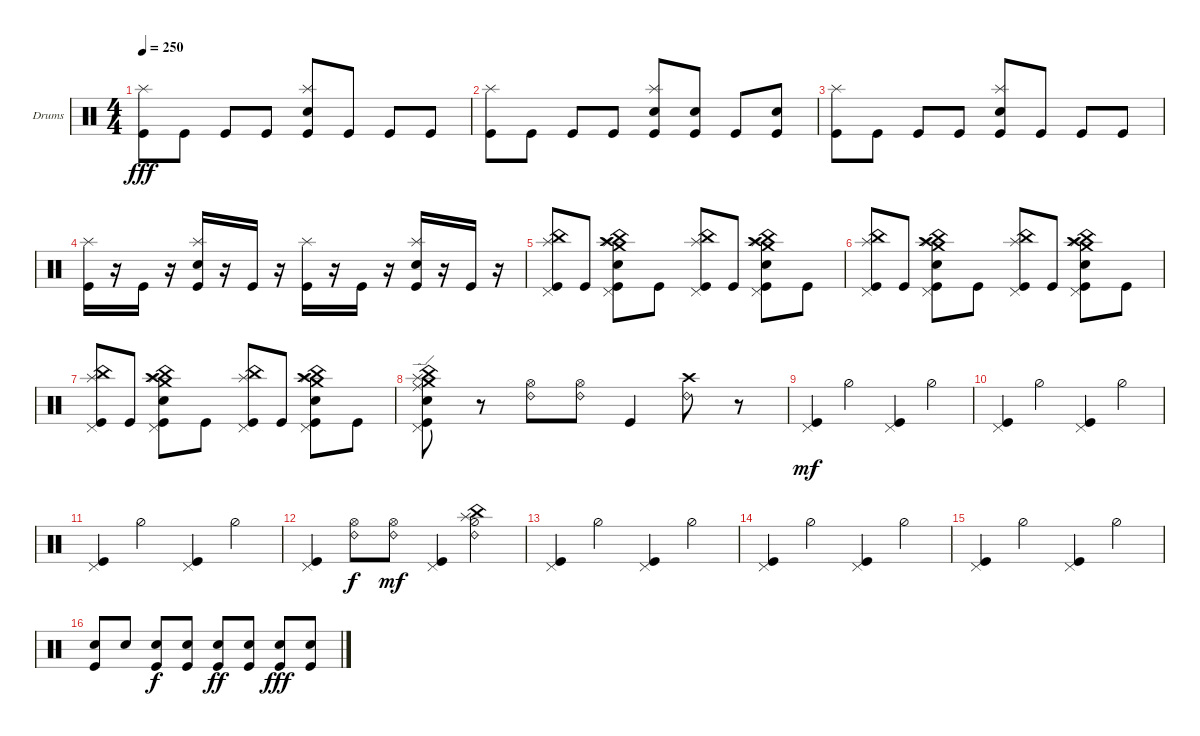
\defaultSystemsLayout 4
\bracketExtendMode groupsimilarinstruments
\firstSystemTrackNameOrientation horizontal
\otherSystemsTrackNameOrientation horizontal
\track ("Драмки" "Drums") {instrument percussion}
\staff {score}
\articulation defaults
\ts (4 4)
\tempo 250
\clef neutral
\scale
0.333333
\ks c
("Kick (hit)" "Splash (hit)").8{dy fff} "Kick (hit)".8 "Kick (hit)".8 "Kick (hit)".8 ("Kick (hit)" "Splash (hit)" "Snare (hit) 2").8 "Kick (hit)".8 "Kick (hit)".8 "Kick (hit)".8 |
\scale
0.333333 ("Kick (hit)" "Splash (hit)").8 "Kick (hit)".8 "Kick (hit)".8 "Kick (hit)".8 ("Kick (hit)" "Splash (hit)" "Snare (hit) 2").8 ("Kick (hit)" "Snare (hit) 2").8 "Kick (hit)".8 ("Kick (hit)" "Snare (hit) 2").8 |
\scale
0.333333 ("Kick (hit)" "Splash (hit)").8 "Kick (hit)".8 "Kick (hit)".8 "Kick (hit)".8 ("Kick (hit)" "Snare (hit) 2" "Splash (hit)").8 "Kick (hit)".8 "Kick (hit)".8 "Kick (hit)".8 |
\scale
0.333333 ("Kick (hit)" "Splash (hit)").16 r.16 "Kick (hit)".16 r.16 ("Kick (hit)" "Snare (hit) 2" "Splash (hit)").16 r.16 "Kick (hit)".16 r.16 ("Kick (hit)" "Splash (hit)").16 r.16 "Kick (hit)".16 r.16 ("Kick (hit)" "Splash (hit)" "Snare (hit) 2").16 r.16 "Kick (hit)".16 r.16 |
\scale
0.333333 ("Splash (hit)" "China (hit)" "Pedal Hi-Hat (hit)" "Kick (hit)").8 "Kick (hit)".8 ("Snare (hit) 2" "Splash (hit)" "Pedal Hi-Hat (hit)" "China (hit)" "Crash high (hit)" "Crash medium (hit)" "Kick (hit)").8 "Kick (hit)".8 ("Splash (hit)" "China (hit)" "Kick (hit)" "Pedal Hi-Hat (hit)").8 "Kick (hit)".8 ("Snare (hit) 2" "Splash (hit)" "Pedal Hi-Hat (hit)" "China (hit)" "Crash high (hit)" "Crash medium (hit)" "Kick (hit)").8 "Kick (hit)".8 |
("Kick (hit)" "Splash (hit)" "China (hit)" "Pedal Hi-Hat (hit)").8 "Kick (hit)".8 ("Snare (hit) 2" "Splash (hit)" "Pedal Hi-Hat (hit)" "China (hit)" "Crash high (hit)" "Crash medium (hit)" "Kick (hit)").8 "Kick (hit)".8 ("Kick (hit)" "Pedal Hi-Hat (hit)" "Splash (hit)" "China (hit)").8 "Kick (hit)".8 ("Pedal Hi-Hat (hit)" "Crash medium (hit)" "Splash (hit)" "Crash high (hit)" "China (hit)" "Snare (hit) 2" "Kick (hit)").8 "Kick (hit)".8 |
("Kick (hit)" "Splash (hit)" "China (hit)" "Pedal Hi-Hat (hit)").8 "Kick (hit)".8 ("Snare (hit) 2" "Splash (hit)" "Pedal Hi-Hat (hit)" "China (hit)" "Crash high (hit)" "Crash medium (hit)" "Kick (hit)").8 "Kick (hit)".8 ("Kick (hit)" "Pedal Hi-Hat (hit)" "Splash (hit)" "China (hit)").8 "Kick (hit)".8 ("Pedal Hi-Hat (hit)" "Crash medium (hit)" "Splash (hit)" "Crash high (hit)" "China (hit)" "Snare (hit) 2" "Kick (hit)").8 "Kick (hit)".8 |
("Kick (hit)" "Snare (hit) 2" "Splash (hit)" "Crash medium (hit)" "Ride (edge)" "Pedal Hi-Hat (hit)" "China (hit)").8 r.8 ("Ride (bell) 2" "Hi-Hat (open)").8 ("Hi-Hat (open)" "Ride (bell) 2").8 "Kick (hit)".4 ("Ride (bell) 2" "Crash high (hit)").8 r.8 |
("Kick (hit)" "Pedal Hi-Hat (hit)").4{dy mf} "Hi-Hat (half)".4 ("Kick (hit)" "Pedal Hi-Hat (hit)").4 "Hi-Hat (half)".4 |
("Kick (hit)" "Pedal Hi-Hat (hit)").4 "Hi-Hat (half)".4 ("Kick (hit)" "Pedal Hi-Hat (hit)").4 "Hi-Hat (half)".4 |
("Kick (hit)" "Pedal Hi-Hat (hit)").4 "Hi-Hat (half)".4 ("Kick (hit)" "Pedal Hi-Hat (hit)").4 "Hi-Hat (half)".4 |
("Kick (hit)" "Pedal Hi-Hat (hit)").4 ("Ride (bell) 2" "Hi-Hat (open)").8{dy f} ("Hi-Hat (open)" "Ride (bell) 2").8{dy mf} ("Kick (hit)" "Pedal Hi-Hat (hit)").4 ("Hi-Hat (half)" "Ride (bell) 2" "Splash (hit)" "China (hit)").4 |
("Kick (hit)" "Pedal Hi-Hat (hit)").4 "Hi-Hat (half)".4 ("Kick (hit)" "Pedal Hi-Hat (hit)").4 "Hi-Hat (half)".4 |
("Kick (hit)" "Pedal Hi-Hat (hit)").4 "Hi-Hat (half)".4 ("Kick (hit)" "Pedal Hi-Hat (hit)").4 "Hi-Hat (half)".4 |
("Kick (hit)" "Pedal Hi-Hat (hit)").4 "Hi-Hat (half)".4 ("Kick (hit)" "Pedal Hi-Hat (hit)").4 "Hi-Hat (half)".4 |
("Kick (hit)" "Snare (hit) 2").8 "Snare (hit) 2".8 ("Kick (hit)" "Snare (hit) 2").8{dy f} ("Kick (hit)" "Snare (hit) 2").8 ("Kick (hit)" "Snare (hit) 2").8{dy ff} ("Kick (hit)" "Snare (hit) 2").8 ("Kick (hit)" "Snare (hit) 2").8{dy fff} ("Kick (hit)" "Snare (hit) 2").8
